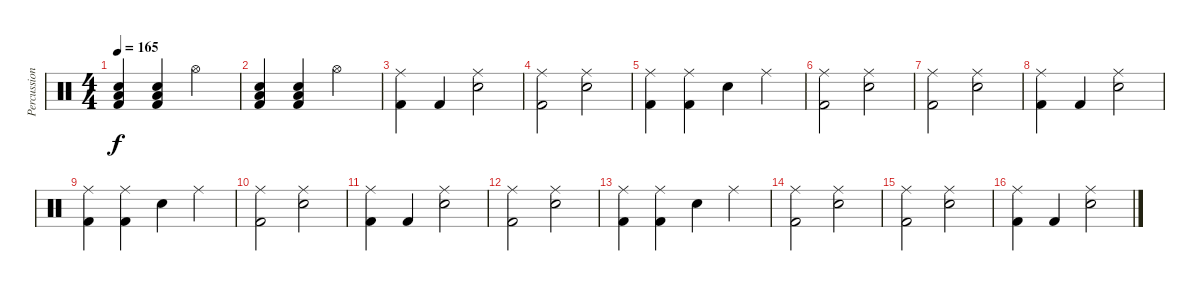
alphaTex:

\track ("Percussion" "Percussion") {instrument percussion}
\staff {score}
\articulation defaults
\ts (4 4)
\tempo 165
\clef neutral
\ks c
("Snare (hit) 2" "Low Tom (hit)" "Kick (hit) 2").4{dy f} ("Snare (hit) 2" "Low Tom (hit)" "Kick (hit) 2").4 "Hi-Hat (open)".2 |
("Snare (hit) 2" "Low Tom (hit)" "Kick (hit) 2").4 ("Snare (hit) 2" "Low Tom (hit)" "Kick (hit) 2").4 "Hi-Hat (open)".2 |
("Ride (middle)" "Kick (hit) 2").4 "Kick (hit) 2".4 ("Ride (middle)" "Snare (hit) 2").2 |
("Ride (middle)" "Kick (hit) 2").2 ("Ride (middle)" "Snare (hit) 2").2 |
("Ride (middle)" "Kick (hit) 2").4 ("Ride (middle)" "Kick (hit) 2").4 "Snare (hit) 2".4 "Ride (middle)".4 |
("Ride (middle)" "Kick (hit) 2").2 ("Ride (middle)" "Snare (hit) 2").2 |
("Ride (middle)" "Kick (hit) 2").2 ("Ride (middle)" "Snare (hit) 2").2 |
("Ride (middle)" "Kick (hit) 2").4 "Kick (hit) 2".4 ("Ride (middle)" "Snare (hit) 2").2 |
("Ride (middle)" "Kick (hit) 2").4 ("Ride (middle)" "Kick (hit) 2").4 "Snare (hit) 2".4 "Ride (middle)".4 |
("Ride (middle)" "Kick (hit) 2").2 ("Ride (middle)" "Snare (hit) 2").2 |
("Ride (middle)" "Kick (hit) 2").4 "Kick (hit) 2".4 ("Ride (middle)" "Snare (hit) 2").2 |
("Ride (middle)" "Kick (hit) 2").2 ("Ride (middle)" "Snare (hit) 2").2 |
("Ride (middle)" "Kick (hit) 2").4 ("Ride (middle)" "Kick (hit) 2").4 "Snare (hit) 2".4 "Ride (middle)".4 |
("Ride (middle)" "Kick (hit) 2").2 ("Ride (middle)" "Snare (hit) 2").2 |
("Ride (middle)" "Kick (hit) 2").2 ("Ride (middle)" "Snare (hit) 2").2 |
("Ride (middle)" "Kick (hit) 2").4 "Kick (hit) 2".4 ("Ride (middle)" "Snare (hit) 2").2
